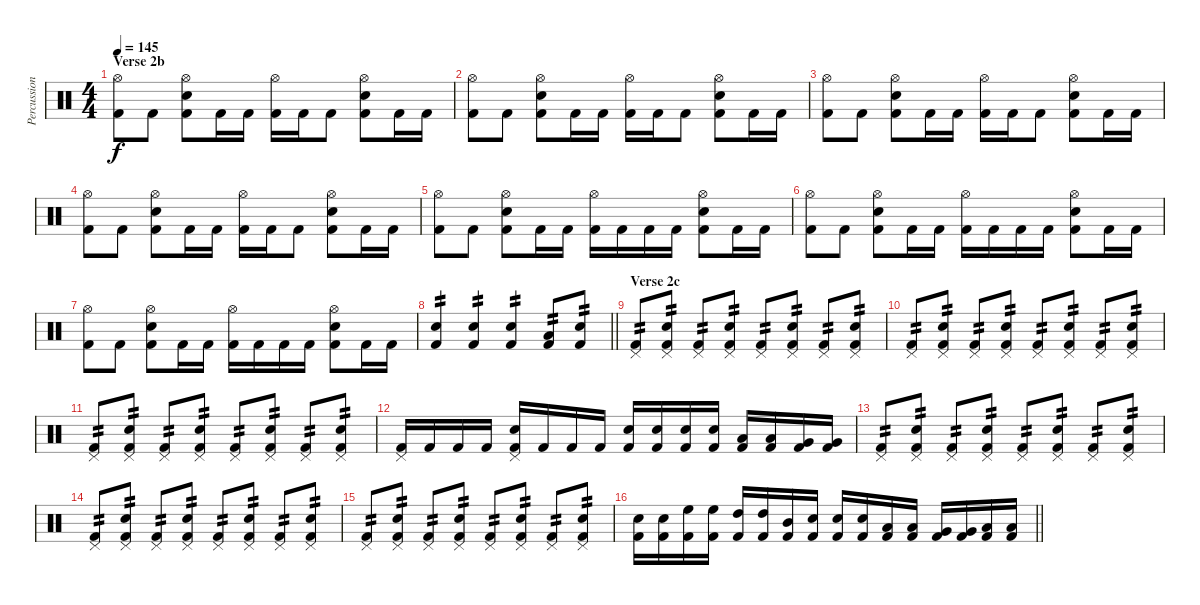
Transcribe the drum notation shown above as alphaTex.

\track ("Percussion" "Percussion") {instrument percussion}
\staff {score}
\articulation defaults
\ts (4 4)
\section ("" "Verse 2b")
\tempo 145
\clef neutral
\ks c
("Hi-Hat (open)" "Kick (hit) 2").8{dy f} "Kick (hit) 2".8 ("Electric Snare (hit)" "Hi-Hat (open)" "Kick (hit) 2").8 "Kick (hit) 2".16 "Kick (hit) 2".16 ("Hi-Hat (open)" "Kick (hit) 2").16 "Kick (hit) 2".16 "Kick (hit) 2".8 ("Electric Snare (hit)" "Hi-Hat (open)" "Kick (hit) 2").8 "Kick (hit) 2".16 "Kick (hit) 2".16 |
("Hi-Hat (open)" "Kick (hit) 2").8 "Kick (hit) 2".8 ("Electric Snare (hit)" "Hi-Hat (open)" "Kick (hit) 2").8 "Kick (hit) 2".16 "Kick (hit) 2".16 ("Hi-Hat (open)" "Kick (hit) 2").16 "Kick (hit) 2".16 "Kick (hit) 2".8 ("Electric Snare (hit)" "Hi-Hat (open)" "Kick (hit) 2").8 "Kick (hit) 2".16 "Kick (hit) 2".16 |
("Hi-Hat (open)" "Kick (hit) 2").8 "Kick (hit) 2".8 ("Electric Snare (hit)" "Hi-Hat (open)" "Kick (hit) 2").8 "Kick (hit) 2".16 "Kick (hit) 2".16 ("Hi-Hat (open)" "Kick (hit) 2").16 "Kick (hit) 2".16 "Kick (hit) 2".8 ("Electric Snare (hit)" "Hi-Hat (open)" "Kick (hit) 2").8 "Kick (hit) 2".16 "Kick (hit) 2".16 |
("Hi-Hat (open)" "Kick (hit) 2").8 "Kick (hit) 2".8 ("Electric Snare (hit)" "Hi-Hat (open)" "Kick (hit) 2").8 "Kick (hit) 2".16 "Kick (hit) 2".16 ("Hi-Hat (open)" "Kick (hit) 2").16 "Kick (hit) 2".16 "Kick (hit) 2".8 ("Electric Snare (hit)" "Hi-Hat (open)" "Kick (hit) 2").8 "Kick (hit) 2".16 "Kick (hit) 2".16 |
("Hi-Hat (open)" "Kick (hit) 2").8 "Kick (hit) 2".8 ("Electric Snare (hit)" "Hi-Hat (open)" "Kick (hit) 2").8 "Kick (hit) 2".16 "Kick (hit) 2".16 ("Hi-Hat (open)" "Kick (hit) 2").16 "Kick (hit) 2".16 "Kick (hit) 2".16 "Kick (hit) 2".16 ("Electric Snare (hit)" "Hi-Hat (open)" "Kick (hit) 2").8 "Kick (hit) 2".16 "Kick (hit) 2".16 |
("Hi-Hat (open)" "Kick (hit) 2").8 "Kick (hit) 2".8 ("Electric Snare (hit)" "Hi-Hat (open)" "Kick (hit) 2").8 "Kick (hit) 2".16 "Kick (hit) 2".16 ("Hi-Hat (open)" "Kick (hit) 2").16 "Kick (hit) 2".16 "Kick (hit) 2".16 "Kick (hit) 2".16 ("Electric Snare (hit)" "Hi-Hat (open)" "Kick (hit) 2").8 "Kick (hit) 2".16 "Kick (hit) 2".16 |
("Hi-Hat (open)" "Kick (hit) 2").8 "Kick (hit) 2".8 ("Electric Snare (hit)" "Hi-Hat (open)" "Kick (hit) 2").8 "Kick (hit) 2".16 "Kick (hit) 2".16 ("Hi-Hat (open)" "Kick (hit) 2").16 "Kick (hit) 2".16 "Kick (hit) 2".16 "Kick (hit) 2".16 ("Electric Snare (hit)" "Hi-Hat (open)" "Kick (hit) 2").8 "Kick (hit) 2".16 "Kick (hit) 2".16 |
\barLineRight lightlight
("Electric Snare (hit)" "Kick (hit) 2").4{tp 2} ("Electric Snare (hit)" "Kick (hit) 2").4{tp 2} ("Electric Snare (hit)" "Kick (hit) 2").4{tp 2} ("Low Tom (hit)" "Kick (hit) 2").8{tp 2} ("Electric Snare (hit)" "Kick (hit) 2").8{tp 2} |
\section ("" "Verse 2c")
("Pedal Hi-Hat (hit)" "Kick (hit) 2").8{tp 2} ("Electric Snare (hit)" "Pedal Hi-Hat (hit)" "Kick (hit) 2").8{tp 2} ("Pedal Hi-Hat (hit)" "Kick (hit) 2").8{tp 2} ("Electric Snare (hit)" "Pedal Hi-Hat (hit)" "Kick (hit) 2").8{tp 2} ("Pedal Hi-Hat (hit)" "Kick (hit) 2").8{tp 2} ("Electric Snare (hit)" "Pedal Hi-Hat (hit)" "Kick (hit) 2").8{tp 2} ("Pedal Hi-Hat (hit)" "Kick (hit) 2").8{tp 2} ("Electric Snare (hit)" "Pedal Hi-Hat (hit)" "Kick (hit) 2").8{tp 2} |
("Pedal Hi-Hat (hit)" "Kick (hit) 2").8{tp 2} ("Electric Snare (hit)" "Pedal Hi-Hat (hit)" "Kick (hit) 2").8{tp 2} ("Pedal Hi-Hat (hit)" "Kick (hit) 2").8{tp 2} ("Electric Snare (hit)" "Pedal Hi-Hat (hit)" "Kick (hit) 2").8{tp 2} ("Pedal Hi-Hat (hit)" "Kick (hit) 2").8{tp 2} ("Electric Snare (hit)" "Pedal Hi-Hat (hit)" "Kick (hit) 2").8{tp 2} ("Pedal Hi-Hat (hit)" "Kick (hit) 2").8{tp 2} ("Electric Snare (hit)" "Pedal Hi-Hat (hit)" "Kick (hit) 2").8{tp 2} |
("Pedal Hi-Hat (hit)" "Kick (hit) 2").8{tp 2} ("Electric Snare (hit)" "Pedal Hi-Hat (hit)" "Kick (hit) 2").8{tp 2} ("Pedal Hi-Hat (hit)" "Kick (hit) 2").8{tp 2} ("Electric Snare (hit)" "Pedal Hi-Hat (hit)" "Kick (hit) 2").8{tp 2} ("Pedal Hi-Hat (hit)" "Kick (hit) 2").8{tp 2} ("Electric Snare (hit)" "Pedal Hi-Hat (hit)" "Kick (hit) 2").8{tp 2} ("Pedal Hi-Hat (hit)" "Kick (hit) 2").8{tp 2} ("Electric Snare (hit)" "Pedal Hi-Hat (hit)" "Kick (hit) 2").8{tp 2} |
("Pedal Hi-Hat (hit)" "Kick (hit) 2").16 "Kick (hit) 2".16 "Kick (hit) 2".16 "Kick (hit) 2".16 ("Electric Snare (hit)" "Pedal Hi-Hat (hit)" "Kick (hit) 2").16 "Kick (hit) 2".16 "Kick (hit) 2".16 "Kick (hit) 2".16 ("Electric Snare (hit)" "Kick (hit) 2").16 ("Electric Snare (hit)" "Kick (hit) 2").16 ("Electric Snare (hit)" "Kick (hit) 2").16 ("Electric Snare (hit)" "Kick (hit) 2").16 ("Low Tom (hit)" "Kick (hit) 2").16 ("Low Tom (hit)" "Kick (hit) 2").16 ("Very Low Tom (hit)" "Kick (hit) 2").16 ("Very Low Tom (hit)" "Kick (hit) 2").16 |
("Pedal Hi-Hat (hit)" "Kick (hit) 2").8{tp 2} ("Electric Snare (hit)" "Pedal Hi-Hat (hit)" "Kick (hit) 2").8{tp 2} ("Pedal Hi-Hat (hit)" "Kick (hit) 2").8{tp 2} ("Electric Snare (hit)" "Pedal Hi-Hat (hit)" "Kick (hit) 2").8{tp 2} ("Pedal Hi-Hat (hit)" "Kick (hit) 2").8{tp 2} ("Electric Snare (hit)" "Pedal Hi-Hat (hit)" "Kick (hit) 2").8{tp 2} ("Pedal Hi-Hat (hit)" "Kick (hit) 2").8{tp 2} ("Electric Snare (hit)" "Pedal Hi-Hat (hit)" "Kick (hit) 2").8{tp 2} |
("Pedal Hi-Hat (hit)" "Kick (hit) 2").8{tp 2} ("Electric Snare (hit)" "Pedal Hi-Hat (hit)" "Kick (hit) 2").8{tp 2} ("Pedal Hi-Hat (hit)" "Kick (hit) 2").8{tp 2} ("Electric Snare (hit)" "Pedal Hi-Hat (hit)" "Kick (hit) 2").8{tp 2} ("Pedal Hi-Hat (hit)" "Kick (hit) 2").8{tp 2} ("Electric Snare (hit)" "Pedal Hi-Hat (hit)" "Kick (hit) 2").8{tp 2} ("Pedal Hi-Hat (hit)" "Kick (hit) 2").8{tp 2} ("Electric Snare (hit)" "Pedal Hi-Hat (hit)" "Kick (hit) 2").8{tp 2} |
("Pedal Hi-Hat (hit)" "Kick (hit) 2").8{tp 2} ("Electric Snare (hit)" "Pedal Hi-Hat (hit)" "Kick (hit) 2").8{tp 2} ("Pedal Hi-Hat (hit)" "Kick (hit) 2").8{tp 2} ("Electric Snare (hit)" "Pedal Hi-Hat (hit)" "Kick (hit) 2").8{tp 2} ("Pedal Hi-Hat (hit)" "Kick (hit) 2").8{tp 2} ("Electric Snare (hit)" "Pedal Hi-Hat (hit)" "Kick (hit) 2").8{tp 2} ("Pedal Hi-Hat (hit)" "Kick (hit) 2").8{tp 2} ("Electric Snare (hit)" "Pedal Hi-Hat (hit)" "Kick (hit) 2").8{tp 2} |
\barLineRight lightlight
("Electric Snare (hit)" "Kick (hit) 2").16 ("Electric Snare (hit)" "Kick (hit) 2").16 ("High Floor Tom (hit)" "Kick (hit) 2").16 ("High Floor Tom (hit)" "Kick (hit) 2").16 ("High Tom (hit)" "Kick (hit) 2").16 ("High Tom (hit)" "Kick (hit) 2").16 ("Mid Tom (hit)" "Kick (hit) 2").16 ("Electric Snare (hit)" "Kick (hit) 2").16 ("Electric Snare (hit)" "Kick (hit) 2").16 ("Electric Snare (hit)" "Kick (hit) 2").16 ("Low Tom (hit)" "Kick (hit) 2").16 ("Low Tom (hit)" "Kick (hit) 2").16 ("Very Low Tom (hit)" "Kick (hit) 2").16 ("Very Low Tom (hit)" "Kick (hit) 2").16 ("Low Floor Tom (hit)" "Kick (hit) 2").16 ("Low Floor Tom (hit)" "Kick (hit) 2").16
